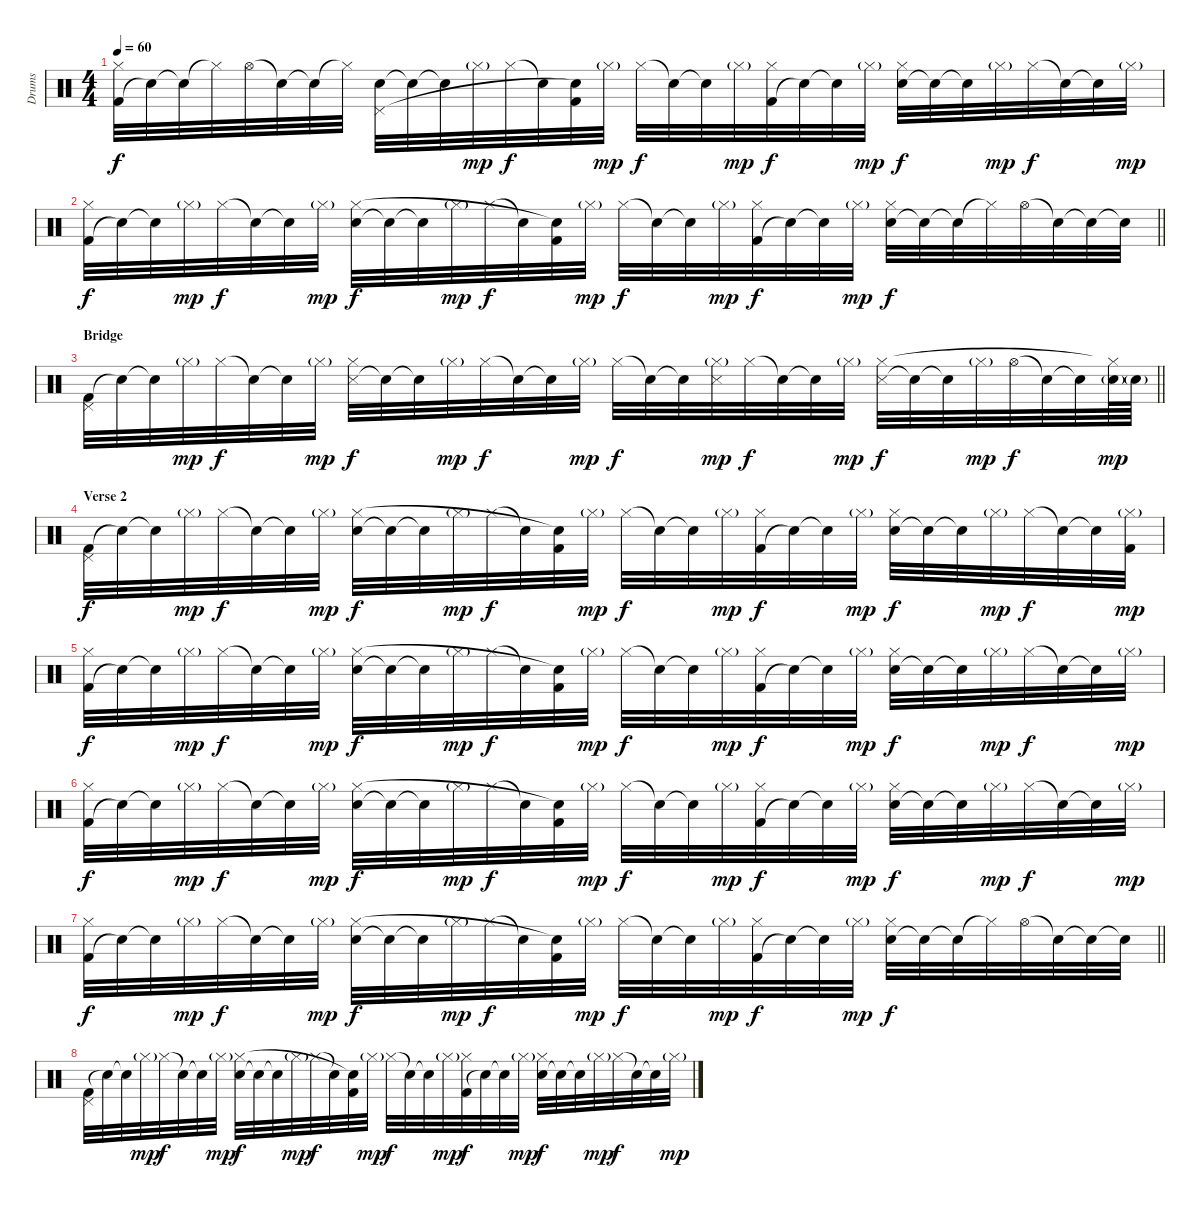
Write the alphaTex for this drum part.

\track ("Drums" "Drums") {instrument percussion}
\staff {score}
\articulation defaults
\ts (4 4)
\tempo 60
\clef neutral
\ks c
("Kick (hit) 2" "Hi-Hat (closed)").32{dy f} "Snare (hit)"{t}.32 "Snare (hit)"{t}.32 "Hi-Hat (closed)"{t}.32 "Hi-Hat (open)".32 "Snare (hit)"{t}.32 "Snare (hit)"{t}.32 "Hi-Hat (closed)"{t}.32 ("Electric Snare (hit)" "Pedal Hi-Hat (hit)").32 "Snare (hit)"{t}.32 "Snare (hit)"{t}.32 "Hi-Hat (closed)"{g}.32{dy mp} "Hi-Hat (closed)".32{dy f} "Snare (hit)"{t}.32 ("Kick (hit) 2" "Snare (hit)"{t}).32 "Hi-Hat (closed)"{g}.32{dy mp} "Hi-Hat (closed)".32{dy f} "Snare (hit)"{t}.32 "Snare (hit)"{t}.32 "Hi-Hat (closed)"{g}.32{dy mp} ("Kick (hit) 2" "Hi-Hat (closed)").32{dy f} "Snare (hit)"{t}.32 "Snare (hit)"{t}.32 "Hi-Hat (closed)"{g}.32{dy mp} ("Electric Snare (hit)" "Hi-Hat (closed)").32{dy f} "Snare (hit)"{t}.32 "Snare (hit)"{t}.32 "Hi-Hat (closed)"{g}.32{dy mp} "Hi-Hat (closed)".32{dy f} "Snare (hit)"{t}.32 "Snare (hit)"{t}.32 "Hi-Hat (closed)"{g}.32{dy mp} |
\barLineRight lightlight
("Kick (hit) 2" "Hi-Hat (closed)").32{dy f} "Snare (hit)"{t}.32 "Snare (hit)"{t}.32 "Hi-Hat (closed)"{g}.32{dy mp} "Hi-Hat (closed)".32{dy f} "Snare (hit)"{t}.32 "Snare (hit)"{t}.32 "Hi-Hat (closed)"{g}.32{dy mp} ("Electric Snare (hit)" "Hi-Hat (closed)").32{dy f} "Snare (hit)"{t}.32 "Snare (hit)"{t}.32 "Hi-Hat (closed)"{g}.32{dy mp} "Hi-Hat (closed)".32{dy f} "Snare (hit)"{t}.32 ("Kick (hit) 2" "Snare (hit)"{t}).32 "Hi-Hat (closed)"{g}.32{dy mp} "Hi-Hat (closed)".32{dy f} "Snare (hit)"{t}.32 "Snare (hit)"{t}.32 "Hi-Hat (closed)"{g}.32{dy mp} ("Kick (hit) 2" "Hi-Hat (closed)").32{dy f} "Snare (hit)"{t}.32 "Snare (hit)"{t}.32 "Hi-Hat (closed)"{g}.32{dy mp} ("Electric Snare (hit)" "Hi-Hat (closed)").32{dy f} "Snare (hit)"{t}.32 "Snare (hit)"{t}.32 "Hi-Hat (closed)"{t}.32 "Hi-Hat (open)".32 "Snare (hit)"{t}.32 "Snare (hit)"{t}.32 "Snare (hit)"{t}.32 |
\section ("" "Bridge")
\barLineRight lightlight
("Kick (hit) 2" "Pedal Hi-Hat (hit)").32 "Snare (hit)"{t}.32 "Snare (hit)"{t}.32 "Hi-Hat (closed)"{g}.32{dy mp} "Hi-Hat (closed)".32{dy f} "Snare (hit)"{t}.32 "Snare (hit)"{t}.32 "Hi-Hat (closed)"{g}.32{dy mp} ("Snare (side stick) 3" "Hi-Hat (closed)").32{dy f} "Snare (hit)"{t}.32 "Snare (hit)"{t}.32 "Hi-Hat (closed)"{g}.32{dy mp} "Hi-Hat (closed)".32{dy f} "Snare (hit)"{t}.32 "Snare (hit)"{t}.32 "Hi-Hat (closed)"{g}.32{dy mp} "Hi-Hat (closed)".32{dy f} "Snare (hit)"{t}.32 "Snare (hit)"{t}.32 ("Snare (side stick) 3" "Hi-Hat (closed)"{g}).32{dy mp} "Hi-Hat (closed)".32{dy f} "Snare (hit)"{t}.32 "Snare (hit)"{t}.32 "Hi-Hat (closed)"{g}.32{dy mp} ("Snare (side stick) 3" "Hi-Hat (closed)").32{dy f} "Snare (hit)"{t}.32 "Snare (hit)"{t}.32 "Hi-Hat (closed)"{g}.32{dy mp} "Hi-Hat (open)".32{dy f} "Snare (hit)"{t}.32 "Snare (hit)"{t}.32 ("Electric Snare (hit)"{g} "Hi-Hat (closed)"{t}).64{dy mp} "Electric Snare (hit)"{g}.64 |
\section ("" "Verse 2")
("Kick (hit) 2" "Pedal Hi-Hat (hit)").32{dy f} "Snare (hit)"{t}.32 "Snare (hit)"{t}.32 "Hi-Hat (closed)"{g}.32{dy mp} "Hi-Hat (closed)".32{dy f} "Snare (hit)"{t}.32 "Snare (hit)"{t}.32 "Hi-Hat (closed)"{g}.32{dy mp} ("Electric Snare (hit)" "Hi-Hat (closed)").32{dy f} "Snare (hit)"{t}.32 "Snare (hit)"{t}.32 "Hi-Hat (closed)"{g}.32{dy mp} "Hi-Hat (closed)".32{dy f} "Snare (hit)"{t}.32 ("Kick (hit) 2" "Snare (hit)"{t}).32 "Hi-Hat (closed)"{g}.32{dy mp} "Hi-Hat (closed)".32{dy f} "Snare (hit)"{t}.32 "Snare (hit)"{t}.32 "Hi-Hat (closed)"{g}.32{dy mp} ("Kick (hit) 2" "Hi-Hat (closed)").32{dy f} "Snare (hit)"{t}.32 "Snare (hit)"{t}.32 "Hi-Hat (closed)"{g}.32{dy mp} ("Electric Snare (hit)" "Hi-Hat (closed)").32{dy f} "Snare (hit)"{t}.32 "Snare (hit)"{t}.32 "Hi-Hat (closed)"{g}.32{dy mp} "Hi-Hat (closed)".32{dy f} "Snare (hit)"{t}.32 "Snare (hit)"{t}.32 ("Kick (hit) 2" "Hi-Hat (closed)"{g}).32{dy mp} |
("Kick (hit) 2" "Hi-Hat (closed)").32{dy f} "Snare (hit)"{t}.32 "Snare (hit)"{t}.32 "Hi-Hat (closed)"{g}.32{dy mp} "Hi-Hat (closed)".32{dy f} "Snare (hit)"{t}.32 "Snare (hit)"{t}.32 "Hi-Hat (closed)"{g}.32{dy mp} ("Electric Snare (hit)" "Hi-Hat (closed)").32{dy f} "Snare (hit)"{t}.32 "Snare (hit)"{t}.32 "Hi-Hat (closed)"{g}.32{dy mp} "Hi-Hat (closed)".32{dy f} "Snare (hit)"{t}.32 ("Kick (hit) 2" "Snare (hit)"{t}).32 "Hi-Hat (closed)"{g}.32{dy mp} "Hi-Hat (closed)".32{dy f} "Snare (hit)"{t}.32 "Snare (hit)"{t}.32 "Hi-Hat (closed)"{g}.32{dy mp} ("Kick (hit) 2" "Hi-Hat (closed)").32{dy f} "Snare (hit)"{t}.32 "Snare (hit)"{t}.32 "Hi-Hat (closed)"{g}.32{dy mp} ("Electric Snare (hit)" "Hi-Hat (closed)").32{dy f} "Snare (hit)"{t}.32 "Snare (hit)"{t}.32 "Hi-Hat (closed)"{g}.32{dy mp} "Hi-Hat (closed)".32{dy f} "Snare (hit)"{t}.32 "Snare (hit)"{t}.32 "Hi-Hat (closed)"{g}.32{dy mp} |
("Kick (hit) 2" "Hi-Hat (closed)").32{dy f} "Snare (hit)"{t}.32 "Snare (hit)"{t}.32 "Hi-Hat (closed)"{g}.32{dy mp} "Hi-Hat (closed)".32{dy f} "Snare (hit)"{t}.32 "Snare (hit)"{t}.32 "Hi-Hat (closed)"{g}.32{dy mp} ("Electric Snare (hit)" "Hi-Hat (closed)").32{dy f} "Snare (hit)"{t}.32 "Snare (hit)"{t}.32 "Hi-Hat (closed)"{g}.32{dy mp} "Hi-Hat (closed)".32{dy f} "Snare (hit)"{t}.32 ("Kick (hit) 2" "Snare (hit)"{t}).32 "Hi-Hat (closed)"{g}.32{dy mp} "Hi-Hat (closed)".32{dy f} "Snare (hit)"{t}.32 "Snare (hit)"{t}.32 "Hi-Hat (closed)"{g}.32{dy mp} ("Kick (hit) 2" "Hi-Hat (closed)").32{dy f} "Snare (hit)"{t}.32 "Snare (hit)"{t}.32 "Hi-Hat (closed)"{g}.32{dy mp} ("Electric Snare (hit)" "Hi-Hat (closed)").32{dy f} "Snare (hit)"{t}.32 "Snare (hit)"{t}.32 "Hi-Hat (closed)"{g}.32{dy mp} "Hi-Hat (closed)".32{dy f} "Snare (hit)"{t}.32 "Snare (hit)"{t}.32 "Hi-Hat (closed)"{g}.32{dy mp} |
\barLineRight lightlight
("Kick (hit) 2" "Hi-Hat (closed)").32{dy f} "Snare (hit)"{t}.32 "Snare (hit)"{t}.32 "Hi-Hat (closed)"{g}.32{dy mp} "Hi-Hat (closed)".32{dy f} "Snare (hit)"{t}.32 "Snare (hit)"{t}.32 "Hi-Hat (closed)"{g}.32{dy mp} ("Electric Snare (hit)" "Hi-Hat (closed)").32{dy f} "Snare (hit)"{t}.32 "Snare (hit)"{t}.32 "Hi-Hat (closed)"{g}.32{dy mp} "Hi-Hat (closed)".32{dy f} "Snare (hit)"{t}.32 ("Kick (hit) 2" "Snare (hit)"{t}).32 "Hi-Hat (closed)"{g}.32{dy mp} "Hi-Hat (closed)".32{dy f} "Snare (hit)"{t}.32 "Snare (hit)"{t}.32 "Hi-Hat (closed)"{g}.32{dy mp} ("Kick (hit) 2" "Hi-Hat (closed)").32{dy f} "Snare (hit)"{t}.32 "Snare (hit)"{t}.32 "Hi-Hat (closed)"{g}.32{dy mp} ("Electric Snare (hit)" "Hi-Hat (closed)").32{dy f} "Snare (hit)"{t}.32 "Snare (hit)"{t}.32 "Hi-Hat (closed)"{t}.32 "Hi-Hat (open)".32 "Snare (hit)"{t}.32 "Snare (hit)"{t}.32 "Snare (hit)"{t}.32 |
("Kick (hit) 2" "Pedal Hi-Hat (hit)").32 "Snare (hit)"{t}.32 "Snare (hit)"{t}.32 "Hi-Hat (closed)"{g}.32{dy mp} "Hi-Hat (closed)".32{dy f} "Snare (hit)"{t}.32 "Snare (hit)"{t}.32 "Hi-Hat (closed)"{g}.32{dy mp} ("Electric Snare (hit)" "Hi-Hat (closed)").32{dy f} "Snare (hit)"{t}.32 "Snare (hit)"{t}.32 "Hi-Hat (closed)"{g}.32{dy mp} "Hi-Hat (closed)".32{dy f} "Snare (hit)"{t}.32 ("Kick (hit) 2" "Snare (hit)"{t}).32 "Hi-Hat (closed)"{g}.32{dy mp} "Hi-Hat (closed)".32{dy f} "Snare (hit)"{t}.32 "Snare (hit)"{t}.32 "Hi-Hat (closed)"{g}.32{dy mp} ("Kick (hit) 2" "Hi-Hat (closed)").32{dy f} "Snare (hit)"{t}.32 "Snare (hit)"{t}.32 "Hi-Hat (closed)"{g}.32{dy mp} ("Electric Snare (hit)" "Hi-Hat (closed)").32{dy f} "Snare (hit)"{t}.32 "Snare (hit)"{t}.32 "Hi-Hat (closed)"{g}.32{dy mp} "Hi-Hat (closed)".32{dy f} "Snare (hit)"{t}.32 "Snare (hit)"{t}.32 "Hi-Hat (closed)"{g}.32{dy mp}
